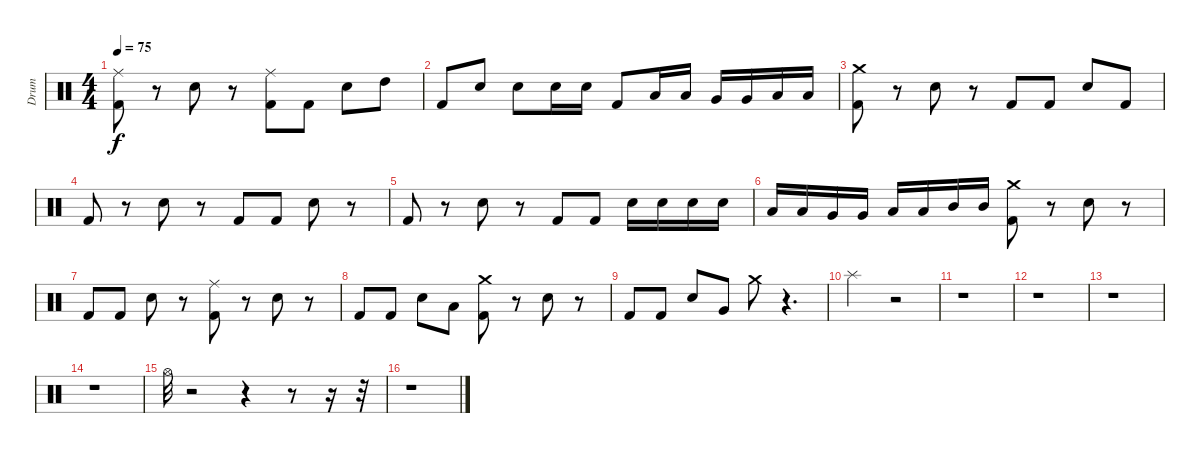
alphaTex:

\track ("Drum" "Drum") {instrument percussion}
\staff {score}
\articulation defaults
\ts (4 4)
\tempo 75
\clef neutral
\ks c
("Kick (hit) 2" "Ride (middle)").8{dy f} r.8 "Snare (hit) 2".8 r.8 ("Kick (hit) 2" "Ride (middle)").8 "Kick (hit) 2".8 "Snare (hit) 2".8 "High Tom (hit)".8 |
"Kick (hit) 2".8 "Snare (hit) 2".8 "Snare (hit) 2".8 "Snare (hit) 2".16 "Snare (hit) 2".16 "Kick (hit) 2".8 "Low Floor Tom (hit)".16 "Low Floor Tom (hit)".16 "Very Low Tom (hit)".16 "Very Low Tom (hit)".16 "Low Tom (hit)".16 "Low Tom (hit)".16 |
("Kick (hit) 2" "Crash medium (hit)").8 r.8 "Snare (hit) 2".8 r.8 "Kick (hit) 2".8 "Kick (hit) 2".8 "Snare (hit) 2".8 "Kick (hit) 2".8 |
"Kick (hit) 2".8 r.8 "Snare (hit) 2".8 r.8 "Kick (hit) 2".8 "Kick (hit) 2".8 "Snare (hit) 2".8 r.8 |
"Kick (hit) 2".8 r.8 "Snare (hit) 2".8 r.8 "Kick (hit) 2".8 "Kick (hit) 2".8 "Electric Snare (hit)".16 "Electric Snare (hit)".16 "Snare (hit) 2".16 "Snare (hit) 2".16 |
"Low Floor Tom (hit)".16 "Low Floor Tom (hit)".16 "Very Low Tom (hit)".16 "Very Low Tom (hit)".16 "Low Tom (hit)".16 "Low Tom (hit)".16 "Mid Tom (hit)".16 "Mid Tom (hit)".16 ("Crash medium (hit)" "Kick (hit) 2").8 r.8 "Snare (hit) 2".8 r.8 |
"Kick (hit) 2".8 "Kick (hit) 2".8 "Snare (hit) 2".8 r.8 ("Kick (hit) 2" "Ride (middle)").8 r.8 "Snare (hit) 2".8 r.8 |
"Kick (hit) 2".8 "Kick (hit) 2".8 "Snare (hit) 2".8 "Low Floor Tom (hit)".8 ("Kick (hit) 2" "Crash medium (hit)").8 r.8 "Snare (hit) 2".8 r.8 |
"Kick (hit) 2".8 "Kick (hit) 2".8 "Snare (hit) 2".8 "Very Low Tom (hit)".8 "Crash medium (hit)".8 r.4{d} |
"Splash (hit)".2 r.2 |
r.1 |
r.1 |
r.1 |
r.1 |
"Hi-Hat (open)".32 r.2 r.4 r.8 r.16 r.32 |
r.1
